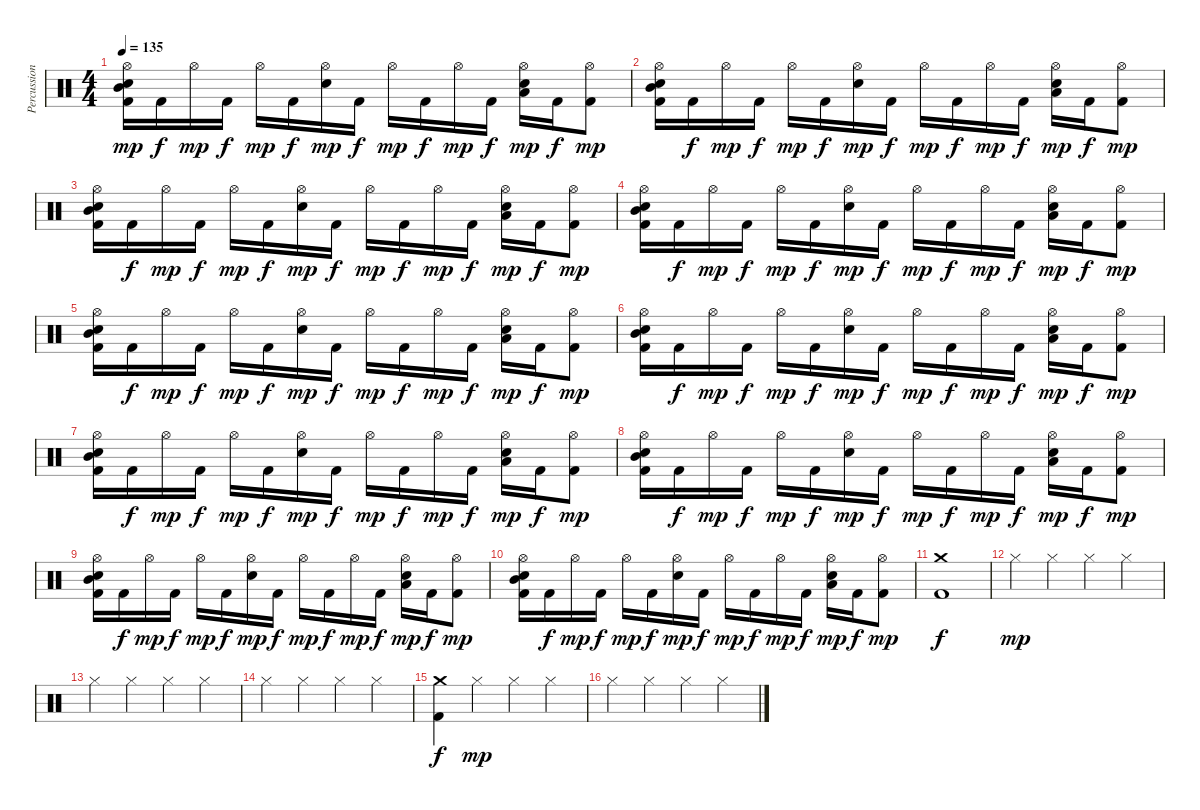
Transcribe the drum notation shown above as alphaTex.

\track ("Percussions" "Percussion") {instrument percussion}
\staff {score}
\articulation defaults
\ts (4 4)
\tempo 135
\clef neutral
\ks c
("Hi-Hat (open)" "Electric Snare (hit)" "Mid Tom (hit)" "Kick (hit) 2").16{dy mp} "Kick (hit) 2".16{dy f} "Hi-Hat (open)".16{dy mp} "Kick (hit) 2".16{dy f} "Hi-Hat (open)".16{dy mp} "Kick (hit) 2".16{dy f} ("Hi-Hat (open)" "Electric Snare (hit)").16{dy mp} "Kick (hit) 2".16{dy f} "Hi-Hat (open)".16{dy mp} "Kick (hit) 2".16{dy f} "Hi-Hat (open)".16{dy mp} "Kick (hit) 2".16{dy f} ("Hi-Hat (open)" "Electric Snare (hit)" "Low Tom (hit)").16{dy mp} "Kick (hit) 2".16{dy f} ("Hi-Hat (open)" "Kick (hit) 2").8{dy mp} |
("Hi-Hat (open)" "Electric Snare (hit)" "Mid Tom (hit)" "Kick (hit) 2").16 "Kick (hit) 2".16{dy f} "Hi-Hat (open)".16{dy mp} "Kick (hit) 2".16{dy f} "Hi-Hat (open)".16{dy mp} "Kick (hit) 2".16{dy f} ("Hi-Hat (open)" "Electric Snare (hit)").16{dy mp} "Kick (hit) 2".16{dy f} "Hi-Hat (open)".16{dy mp} "Kick (hit) 2".16{dy f} "Hi-Hat (open)".16{dy mp} "Kick (hit) 2".16{dy f} ("Hi-Hat (open)" "Electric Snare (hit)" "Low Tom (hit)").16{dy mp} "Kick (hit) 2".16{dy f} ("Hi-Hat (open)" "Kick (hit) 2").8{dy mp} |
("Hi-Hat (open)" "Electric Snare (hit)" "Mid Tom (hit)" "Kick (hit) 2").16 "Kick (hit) 2".16{dy f} "Hi-Hat (open)".16{dy mp} "Kick (hit) 2".16{dy f} "Hi-Hat (open)".16{dy mp} "Kick (hit) 2".16{dy f} ("Hi-Hat (open)" "Electric Snare (hit)").16{dy mp} "Kick (hit) 2".16{dy f} "Hi-Hat (open)".16{dy mp} "Kick (hit) 2".16{dy f} "Hi-Hat (open)".16{dy mp} "Kick (hit) 2".16{dy f} ("Hi-Hat (open)" "Electric Snare (hit)" "Low Tom (hit)").16{dy mp} "Kick (hit) 2".16{dy f} ("Hi-Hat (open)" "Kick (hit) 2").8{dy mp} |
("Hi-Hat (open)" "Electric Snare (hit)" "Mid Tom (hit)" "Kick (hit) 2").16 "Kick (hit) 2".16{dy f} "Hi-Hat (open)".16{dy mp} "Kick (hit) 2".16{dy f} "Hi-Hat (open)".16{dy mp} "Kick (hit) 2".16{dy f} ("Hi-Hat (open)" "Electric Snare (hit)").16{dy mp} "Kick (hit) 2".16{dy f} "Hi-Hat (open)".16{dy mp} "Kick (hit) 2".16{dy f} "Hi-Hat (open)".16{dy mp} "Kick (hit) 2".16{dy f} ("Hi-Hat (open)" "Electric Snare (hit)" "Low Tom (hit)").16{dy mp} "Kick (hit) 2".16{dy f} ("Hi-Hat (open)" "Kick (hit) 2").8{dy mp} |
("Hi-Hat (open)" "Electric Snare (hit)" "Mid Tom (hit)" "Kick (hit) 2").16 "Kick (hit) 2".16{dy f} "Hi-Hat (open)".16{dy mp} "Kick (hit) 2".16{dy f} "Hi-Hat (open)".16{dy mp} "Kick (hit) 2".16{dy f} ("Hi-Hat (open)" "Electric Snare (hit)").16{dy mp} "Kick (hit) 2".16{dy f} "Hi-Hat (open)".16{dy mp} "Kick (hit) 2".16{dy f} "Hi-Hat (open)".16{dy mp} "Kick (hit) 2".16{dy f} ("Hi-Hat (open)" "Electric Snare (hit)" "Low Tom (hit)").16{dy mp} "Kick (hit) 2".16{dy f} ("Hi-Hat (open)" "Kick (hit) 2").8{dy mp} |
("Hi-Hat (open)" "Electric Snare (hit)" "Mid Tom (hit)" "Kick (hit) 2").16 "Kick (hit) 2".16{dy f} "Hi-Hat (open)".16{dy mp} "Kick (hit) 2".16{dy f} "Hi-Hat (open)".16{dy mp} "Kick (hit) 2".16{dy f} ("Hi-Hat (open)" "Electric Snare (hit)").16{dy mp} "Kick (hit) 2".16{dy f} "Hi-Hat (open)".16{dy mp} "Kick (hit) 2".16{dy f} "Hi-Hat (open)".16{dy mp} "Kick (hit) 2".16{dy f} ("Hi-Hat (open)" "Electric Snare (hit)" "Low Tom (hit)").16{dy mp} "Kick (hit) 2".16{dy f} ("Hi-Hat (open)" "Kick (hit) 2").8{dy mp} |
("Hi-Hat (open)" "Electric Snare (hit)" "Mid Tom (hit)" "Kick (hit) 2").16 "Kick (hit) 2".16{dy f} "Hi-Hat (open)".16{dy mp} "Kick (hit) 2".16{dy f} "Hi-Hat (open)".16{dy mp} "Kick (hit) 2".16{dy f} ("Hi-Hat (open)" "Electric Snare (hit)").16{dy mp} "Kick (hit) 2".16{dy f} "Hi-Hat (open)".16{dy mp} "Kick (hit) 2".16{dy f} "Hi-Hat (open)".16{dy mp} "Kick (hit) 2".16{dy f} ("Hi-Hat (open)" "Electric Snare (hit)" "Low Tom (hit)").16{dy mp} "Kick (hit) 2".16{dy f} ("Hi-Hat (open)" "Kick (hit) 2").8{dy mp} |
("Hi-Hat (open)" "Electric Snare (hit)" "Mid Tom (hit)" "Kick (hit) 2").16 "Kick (hit) 2".16{dy f} "Hi-Hat (open)".16{dy mp} "Kick (hit) 2".16{dy f} "Hi-Hat (open)".16{dy mp} "Kick (hit) 2".16{dy f} ("Hi-Hat (open)" "Electric Snare (hit)").16{dy mp} "Kick (hit) 2".16{dy f} "Hi-Hat (open)".16{dy mp} "Kick (hit) 2".16{dy f} "Hi-Hat (open)".16{dy mp} "Kick (hit) 2".16{dy f} ("Hi-Hat (open)" "Electric Snare (hit)" "Low Tom (hit)").16{dy mp} "Kick (hit) 2".16{dy f} ("Hi-Hat (open)" "Kick (hit) 2").8{dy mp} |
("Hi-Hat (open)" "Electric Snare (hit)" "Mid Tom (hit)" "Kick (hit) 2").16 "Kick (hit) 2".16{dy f} "Hi-Hat (open)".16{dy mp} "Kick (hit) 2".16{dy f} "Hi-Hat (open)".16{dy mp} "Kick (hit) 2".16{dy f} ("Hi-Hat (open)" "Electric Snare (hit)").16{dy mp} "Kick (hit) 2".16{dy f} "Hi-Hat (open)".16{dy mp} "Kick (hit) 2".16{dy f} "Hi-Hat (open)".16{dy mp} "Kick (hit) 2".16{dy f} ("Hi-Hat (open)" "Electric Snare (hit)" "Low Tom (hit)").16{dy mp} "Kick (hit) 2".16{dy f} ("Hi-Hat (open)" "Kick (hit) 2").8{dy mp} |
("Hi-Hat (open)" "Electric Snare (hit)" "Mid Tom (hit)" "Kick (hit) 2").16 "Kick (hit) 2".16{dy f} "Hi-Hat (open)".16{dy mp} "Kick (hit) 2".16{dy f} "Hi-Hat (open)".16{dy mp} "Kick (hit) 2".16{dy f} ("Hi-Hat (open)" "Electric Snare (hit)").16{dy mp} "Kick (hit) 2".16{dy f} "Hi-Hat (open)".16{dy mp} "Kick (hit) 2".16{dy f} "Hi-Hat (open)".16{dy mp} "Kick (hit) 2".16{dy f} ("Hi-Hat (open)" "Electric Snare (hit)" "Low Tom (hit)").16{dy mp} "Kick (hit) 2".16{dy f} ("Hi-Hat (open)" "Kick (hit) 2").8{dy mp} |
("Crash medium (hit)" "Kick (hit) 2").1{dy f} |
"Hi-Hat (closed)".4{dy mp} "Hi-Hat (closed)".4 "Hi-Hat (closed)".4 "Hi-Hat (closed)".4 |
"Hi-Hat (closed)".4 "Hi-Hat (closed)".4 "Hi-Hat (closed)".4 "Hi-Hat (closed)".4 |
"Hi-Hat (closed)".4 "Hi-Hat (closed)".4 "Hi-Hat (closed)".4 "Hi-Hat (closed)".4 |
("Crash medium (hit)" "Kick (hit) 2").4{dy f} "Hi-Hat (closed)".4{dy mp} "Hi-Hat (closed)".4 "Hi-Hat (closed)".4 |
"Hi-Hat (closed)".4 "Hi-Hat (closed)".4 "Hi-Hat (closed)".4 "Hi-Hat (closed)".4
